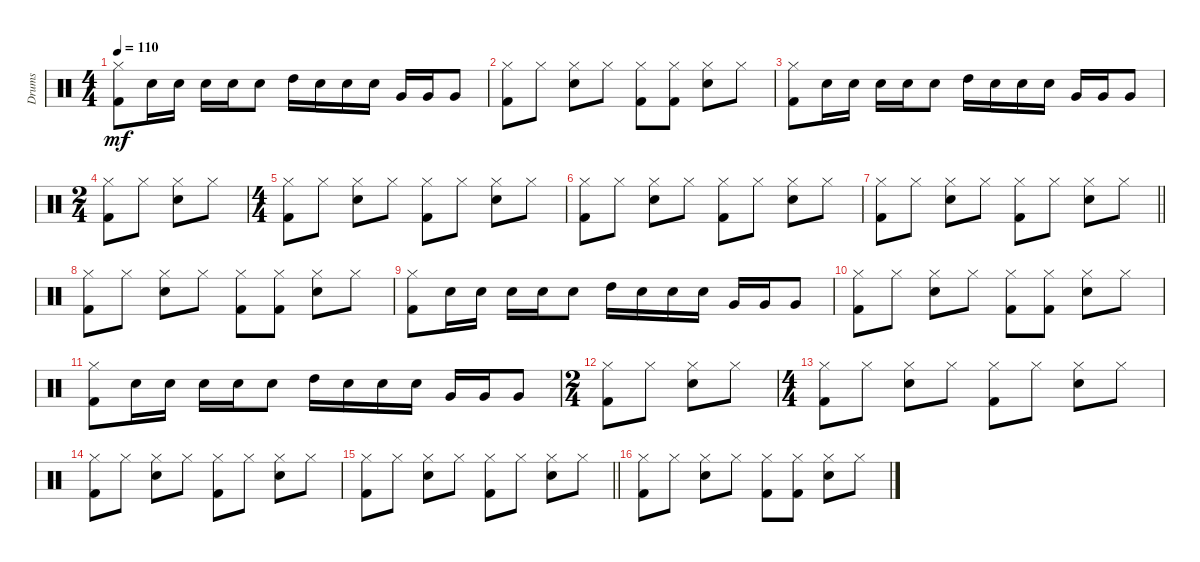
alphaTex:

\track ("Drums" "Drums") {instrument percussion}
\staff {score}
\articulation defaults
\ts (4 4)
\tempo 110
\clef neutral
\ks c
("Hi-Hat (closed)" "Kick (hit) 2").8{dy mf} "Snare (hit) 2".16 "Snare (hit) 2".16 "Snare (hit) 2".16 "Snare (hit) 2".16 "Snare (hit) 2".8 "High Tom (hit)".16 "Snare (hit) 2".16 "Snare (hit) 2".16 "Snare (hit) 2".16 "Very Low Tom (hit)".16 "Very Low Tom (hit)".16 "Very Low Tom (hit)".8 |
("Hi-Hat (closed)" "Kick (hit) 2").8 "Hi-Hat (closed)".8 ("Hi-Hat (closed)" "Snare (hit) 2").8 "Hi-Hat (closed)".8 ("Hi-Hat (closed)" "Kick (hit) 2").8 ("Hi-Hat (closed)" "Kick (hit) 2").8 ("Hi-Hat (closed)" "Snare (hit) 2").8 "Hi-Hat (closed)".8 |
("Hi-Hat (closed)" "Kick (hit) 2").8 "Snare (hit) 2".16 "Snare (hit) 2".16 "Snare (hit) 2".16 "Snare (hit) 2".16 "Snare (hit) 2".8 "High Tom (hit)".16 "Snare (hit) 2".16 "Snare (hit) 2".16 "Snare (hit) 2".16 "Very Low Tom (hit)".16 "Very Low Tom (hit)".16 "Very Low Tom (hit)".8 |
\ts (2 4)
("Hi-Hat (closed)" "Kick (hit) 2").8 "Hi-Hat (closed)".8 ("Hi-Hat (closed)" "Snare (hit) 2").8 "Hi-Hat (closed)".8 |
\ts (4 4)
("Hi-Hat (closed)" "Kick (hit) 2").8 "Hi-Hat (closed)".8 ("Hi-Hat (closed)" "Snare (hit) 2").8 "Hi-Hat (closed)".8 ("Hi-Hat (closed)" "Kick (hit) 2").8 "Hi-Hat (closed)".8 ("Hi-Hat (closed)" "Snare (hit) 2").8 "Hi-Hat (closed)".8 |
("Hi-Hat (closed)" "Kick (hit) 2").8 "Hi-Hat (closed)".8 ("Hi-Hat (closed)" "Snare (hit) 2").8 "Hi-Hat (closed)".8 ("Hi-Hat (closed)" "Kick (hit) 2").8 "Hi-Hat (closed)".8 ("Hi-Hat (closed)" "Snare (hit) 2").8 "Hi-Hat (closed)".8 |
\barLineRight lightlight
("Hi-Hat (closed)" "Kick (hit) 2").8 "Hi-Hat (closed)".8 ("Hi-Hat (closed)" "Snare (hit) 2").8 "Hi-Hat (closed)".8 ("Hi-Hat (closed)" "Kick (hit) 2").8 "Hi-Hat (closed)".8 ("Hi-Hat (closed)" "Snare (hit) 2").8 "Hi-Hat (closed)".8 |
("Hi-Hat (closed)" "Kick (hit) 2").8 "Hi-Hat (closed)".8 ("Hi-Hat (closed)" "Snare (hit) 2").8 "Hi-Hat (closed)".8 ("Hi-Hat (closed)" "Kick (hit) 2").8 ("Hi-Hat (closed)" "Kick (hit) 2").8 ("Hi-Hat (closed)" "Snare (hit) 2").8 "Hi-Hat (closed)".8 |
("Hi-Hat (closed)" "Kick (hit) 2").8 "Snare (hit) 2".16 "Snare (hit) 2".16 "Snare (hit) 2".16 "Snare (hit) 2".16 "Snare (hit) 2".8 "High Tom (hit)".16 "Snare (hit) 2".16 "Snare (hit) 2".16 "Snare (hit) 2".16 "Very Low Tom (hit)".16 "Very Low Tom (hit)".16 "Very Low Tom (hit)".8 |
("Hi-Hat (closed)" "Kick (hit) 2").8 "Hi-Hat (closed)".8 ("Hi-Hat (closed)" "Snare (hit) 2").8 "Hi-Hat (closed)".8 ("Hi-Hat (closed)" "Kick (hit) 2").8 ("Hi-Hat (closed)" "Kick (hit) 2").8 ("Hi-Hat (closed)" "Snare (hit) 2").8 "Hi-Hat (closed)".8 |
("Hi-Hat (closed)" "Kick (hit) 2").8 "Snare (hit) 2".16 "Snare (hit) 2".16 "Snare (hit) 2".16 "Snare (hit) 2".16 "Snare (hit) 2".8 "High Tom (hit)".16 "Snare (hit) 2".16 "Snare (hit) 2".16 "Snare (hit) 2".16 "Very Low Tom (hit)".16 "Very Low Tom (hit)".16 "Very Low Tom (hit)".8 |
\ts (2 4)
("Hi-Hat (closed)" "Kick (hit) 2").8 "Hi-Hat (closed)".8 ("Hi-Hat (closed)" "Snare (hit) 2").8 "Hi-Hat (closed)".8 |
\ts (4 4)
("Hi-Hat (closed)" "Kick (hit) 2").8 "Hi-Hat (closed)".8 ("Hi-Hat (closed)" "Snare (hit) 2").8 "Hi-Hat (closed)".8 ("Hi-Hat (closed)" "Kick (hit) 2").8 "Hi-Hat (closed)".8 ("Hi-Hat (closed)" "Snare (hit) 2").8 "Hi-Hat (closed)".8 |
("Hi-Hat (closed)" "Kick (hit) 2").8 "Hi-Hat (closed)".8 ("Hi-Hat (closed)" "Snare (hit) 2").8 "Hi-Hat (closed)".8 ("Hi-Hat (closed)" "Kick (hit) 2").8 "Hi-Hat (closed)".8 ("Hi-Hat (closed)" "Snare (hit) 2").8 "Hi-Hat (closed)".8 |
\barLineRight lightlight
("Hi-Hat (closed)" "Kick (hit) 2").8 "Hi-Hat (closed)".8 ("Hi-Hat (closed)" "Snare (hit) 2").8 "Hi-Hat (closed)".8 ("Hi-Hat (closed)" "Kick (hit) 2").8 "Hi-Hat (closed)".8 ("Hi-Hat (closed)" "Snare (hit) 2").8 "Hi-Hat (closed)".8 |
("Hi-Hat (closed)" "Kick (hit) 2").8 "Hi-Hat (closed)".8 ("Hi-Hat (closed)" "Snare (hit) 2").8 "Hi-Hat (closed)".8 ("Hi-Hat (closed)" "Kick (hit) 2").8 ("Hi-Hat (closed)" "Kick (hit) 2").8 ("Hi-Hat (closed)" "Snare (hit) 2").8 "Hi-Hat (closed)".8
